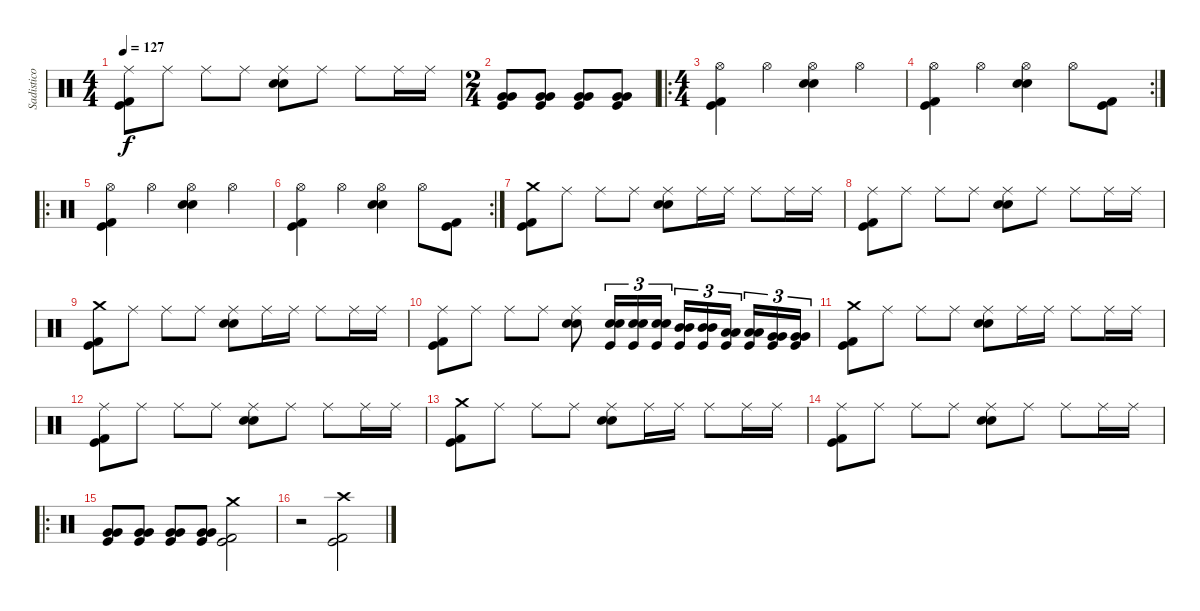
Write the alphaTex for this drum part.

\track ("Sadistico" "Sadistico") {instrument percussion}
\staff {score}
\articulation defaults
\ts (4 4)
\tempo 127
\clef neutral
\ks c
("Ride (middle)" "Kick (hit)" "Kick (hit) 2").8{dy f} "Ride (middle)".8 "Ride (middle)".8 "Ride (middle)".8 ("Ride (middle)" "Snare (hit) 2" "Snare (hit) 2").8 "Ride (middle)".8 "Ride (middle)".8 "Ride (middle)".16 "Ride (middle)".16 |
\ts (2 4)
("Kick (hit)" "Very Low Tom (hit)" "Very Low Tom (hit)").8 ("Kick (hit)" "Very Low Tom (hit)" "Very Low Tom (hit)").8 ("Kick (hit)" "Very Low Tom (hit)" "Very Low Tom (hit)").8 ("Kick (hit)" "Very Low Tom (hit)" "Very Low Tom (hit)").8 |
\ro
\ts (4 4)
("Hi-Hat (open)" "Kick (hit)" "Kick (hit) 2").4 "Hi-Hat (open)".4 ("Hi-Hat (open)" "Snare (hit) 2" "Snare (hit) 2").4 "Hi-Hat (open)".4 |
\rc 2
("Hi-Hat (open)" "Kick (hit)" "Kick (hit) 2").4 "Hi-Hat (open)".4 ("Hi-Hat (open)" "Snare (hit) 2" "Snare (hit) 2").4 "Hi-Hat (open)".8 ("Kick (hit)" "Kick (hit) 2").8 |
\ro
("Hi-Hat (open)" "Kick (hit)" "Kick (hit) 2").4 "Hi-Hat (open)".4 ("Hi-Hat (open)" "Snare (hit) 2" "Snare (hit) 2").4 "Hi-Hat (open)".4 |
\rc 2
("Hi-Hat (open)" "Kick (hit)" "Kick (hit) 2").4 "Hi-Hat (open)".4 ("Hi-Hat (open)" "Snare (hit) 2" "Snare (hit) 2").4 "Hi-Hat (open)".8 ("Kick (hit)" "Kick (hit) 2").8 |
("Crash medium (hit)" "Kick (hit)" "Kick (hit) 2").8 "Ride (middle)".8 "Ride (middle)".8 "Ride (middle)".8 ("Ride (middle)" "Snare (hit) 2" "Snare (hit) 2").8 "Ride (middle)".16 "Ride (middle)".16 "Ride (middle)".8 "Ride (middle)".16 "Ride (middle)".16 |
("Ride (middle)" "Kick (hit)" "Kick (hit) 2").8 "Ride (middle)".8 "Ride (middle)".8 "Ride (middle)".8 ("Ride (middle)" "Snare (hit) 2" "Snare (hit) 2").8 "Ride (middle)".8 "Ride (middle)".8 "Ride (middle)".16 "Ride (middle)".16 |
("Crash medium (hit)" "Kick (hit)" "Kick (hit) 2").8 "Ride (middle)".8 "Ride (middle)".8 "Ride (middle)".8 ("Ride (middle)" "Snare (hit) 2" "Snare (hit) 2").8 "Ride (middle)".16 "Ride (middle)".16 "Ride (middle)".8 "Ride (middle)".16 "Ride (middle)".16 |
("Ride (middle)" "Kick (hit)" "Kick (hit) 2").8 "Ride (middle)".8 "Ride (middle)".8 "Ride (middle)".8 ("Ride (middle)" "Snare (hit) 2" "Snare (hit) 2").8 ("Snare (hit) 2" "Snare (hit) 2" "Kick (hit)").16{tu (3 2)} ("Snare (hit) 2" "Snare (hit) 2" "Kick (hit)").16{tu (3 2)} ("Snare (hit) 2" "Snare (hit) 2" "Kick (hit)").16{tu (3 2)} ("Mid Tom (hit)" "Mid Tom (hit)" "Kick (hit)").16{tu (3 2)} ("Mid Tom (hit)" "Mid Tom (hit)" "Kick (hit)").16{tu (3 2)} ("Low Tom (hit)" "Low Tom (hit)" "Kick (hit)").16{tu (3 2)} ("Low Tom (hit)" "Low Tom (hit)" "Kick (hit)").16{tu (3 2)} ("Very Low Tom (hit)" "Very Low Tom (hit)" "Kick (hit)").16{tu (3 2)} ("Very Low Tom (hit)" "Very Low Tom (hit)" "Kick (hit)").16{tu (3 2)} |
("Crash medium (hit)" "Kick (hit)" "Kick (hit) 2").8 "Ride (middle)".8 "Ride (middle)".8 "Ride (middle)".8 ("Ride (middle)" "Snare (hit) 2" "Snare (hit) 2").8 "Ride (middle)".16 "Ride (middle)".16 "Ride (middle)".8 "Ride (middle)".16 "Ride (middle)".16 |
("Ride (middle)" "Kick (hit)" "Kick (hit) 2").8 "Ride (middle)".8 "Ride (middle)".8 "Ride (middle)".8 ("Ride (middle)" "Snare (hit) 2" "Snare (hit) 2").8 "Ride (middle)".8 "Ride (middle)".8 "Ride (middle)".16 "Ride (middle)".16 |
("Crash medium (hit)" "Kick (hit)" "Kick (hit) 2").8 "Ride (middle)".8 "Ride (middle)".8 "Ride (middle)".8 ("Ride (middle)" "Snare (hit) 2" "Snare (hit) 2").8 "Ride (middle)".16 "Ride (middle)".16 "Ride (middle)".8 "Ride (middle)".16 "Ride (middle)".16 |
("Ride (middle)" "Kick (hit)" "Kick (hit) 2").8 "Ride (middle)".8 "Ride (middle)".8 "Ride (middle)".8 ("Ride (middle)" "Snare (hit) 2" "Snare (hit) 2").8 "Ride (middle)".8 "Ride (middle)".8 "Ride (middle)".16 "Ride (middle)".16 |
\ro
("Kick (hit)" "Very Low Tom (hit)" "Very Low Tom (hit)").8 ("Kick (hit)" "Very Low Tom (hit)" "Very Low Tom (hit)").8 ("Kick (hit)" "Very Low Tom (hit)" "Very Low Tom (hit)").8 ("Kick (hit)" "Very Low Tom (hit)" "Very Low Tom (hit)").8 ("Crash medium (hit)" "Kick (hit)" "Kick (hit) 2").2 |
r.2 ("Crash high (hit)" "Kick (hit)" "Kick (hit) 2").2
